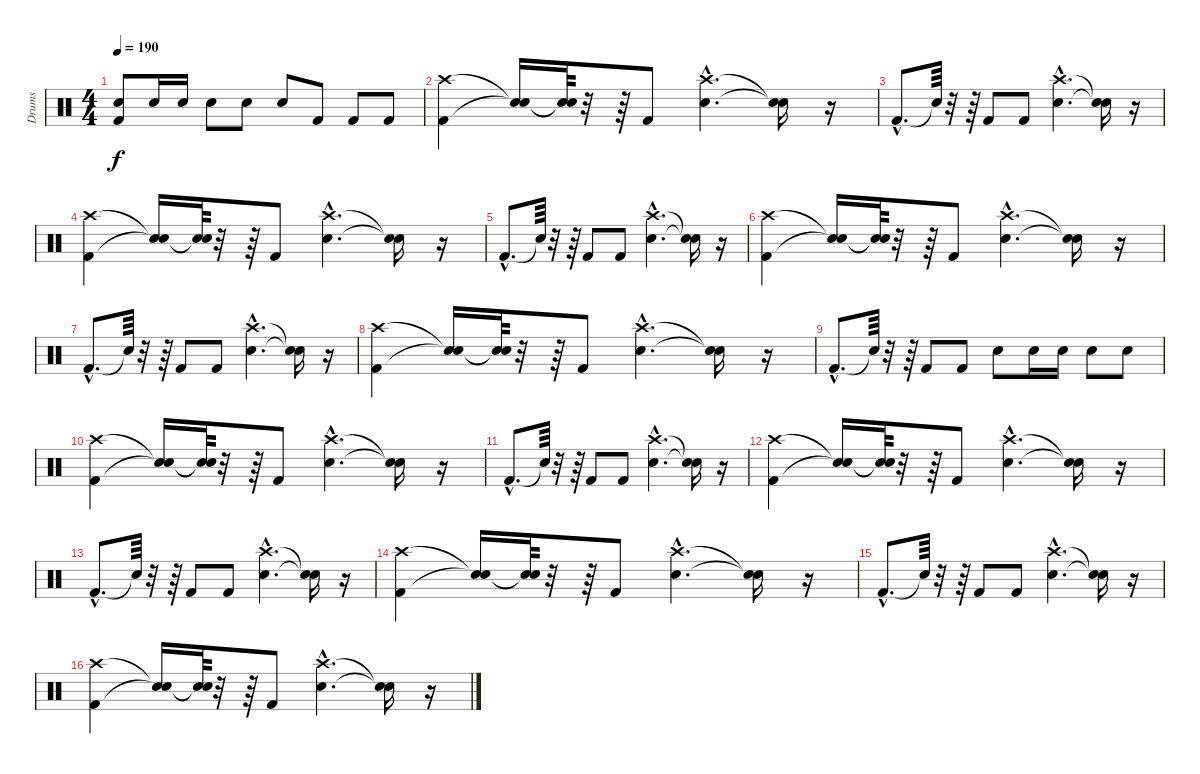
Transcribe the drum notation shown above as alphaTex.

\track ("Drums" "Drums") {instrument percussion}
\staff {score}
\articulation defaults
\ts (4 4)
\tempo 190
\clef neutral
\ks c
("Kick (hit) 2" "Snare (hit) 2").8{dy f} "Snare (hit) 2".16 "Snare (hit) 2".16 "Snare (hit) 2".8 "Snare (hit) 2".8 "Snare (hit) 2".8 "Kick (hit) 2".8 "Kick (hit) 2".8 "Kick (hit) 2".8 |
("Kick (hit) 2" "Crash high (hit)").4 ("Snare (hit)"{t} "Snare (hit)"{t}).16 ("Snare (hit)"{t} "Snare (hit)"{t}).64 r.32 r.64 "Kick (hit) 2".8 ("Snare (hit) 2"{hac} "Crash high (hit)"{hac}).4{d} ("Snare (hit)"{t} "Snare (hit)"{t}).16 r.16 |
"Kick (hit) 2"{hac}.8{d} "Snare (hit)"{t}.64 r.32 r.64 "Kick (hit) 2".8 "Kick (hit) 2".8 ("Snare (hit) 2"{hac} "Crash high (hit)"{hac}).4{d} ("Snare (hit)"{t} "Snare (hit)"{t}).16 r.16 |
("Kick (hit) 2" "Crash high (hit)").4 ("Snare (hit)"{t} "Snare (hit)"{t}).16 ("Snare (hit)"{t} "Snare (hit)"{t}).64 r.32 r.64 "Kick (hit) 2".8 ("Snare (hit) 2"{hac} "Crash high (hit)"{hac}).4{d} ("Snare (hit)"{t} "Snare (hit)"{t}).16 r.16 |
"Kick (hit) 2"{hac}.8{d} "Snare (hit)"{t}.64 r.32 r.64 "Kick (hit) 2".8 "Kick (hit) 2".8 ("Snare (hit) 2"{hac} "Crash high (hit)"{hac}).4{d} ("Snare (hit)"{t} "Snare (hit)"{t}).16 r.16 |
("Kick (hit) 2" "Crash high (hit)").4 ("Snare (hit)"{t} "Snare (hit)"{t}).16 ("Snare (hit)"{t} "Snare (hit)"{t}).64 r.32 r.64 "Kick (hit) 2".8 ("Snare (hit) 2"{hac} "Crash high (hit)"{hac}).4{d} ("Snare (hit)"{t} "Snare (hit)"{t}).16 r.16 |
"Kick (hit) 2"{hac}.8{d} "Snare (hit)"{t}.64 r.32 r.64 "Kick (hit) 2".8 "Kick (hit) 2".8 ("Snare (hit) 2"{hac} "Crash high (hit)"{hac}).4{d} ("Snare (hit)"{t} "Snare (hit)"{t}).16 r.16 |
("Kick (hit) 2" "Crash high (hit)").4 ("Snare (hit)"{t} "Snare (hit)"{t}).16 ("Snare (hit)"{t} "Snare (hit)"{t}).64 r.32 r.64 "Kick (hit) 2".8 ("Snare (hit) 2"{hac} "Crash high (hit)"{hac}).4{d} ("Snare (hit)"{t} "Snare (hit)"{t}).16 r.16 |
"Kick (hit) 2"{hac}.8{d} "Snare (hit)"{t}.64 r.32 r.64 "Kick (hit) 2".8 "Kick (hit) 2".8 "Snare (hit) 2".8 "Snare (hit) 2".16 "Snare (hit) 2".16 "Snare (hit) 2".8 "Snare (hit) 2".8 |
("Kick (hit) 2" "Crash high (hit)").4 ("Snare (hit)"{t} "Snare (hit)"{t}).16 ("Snare (hit)"{t} "Snare (hit)"{t}).64 r.32 r.64 "Kick (hit) 2".8 ("Snare (hit) 2"{hac} "Crash high (hit)"{hac}).4{d} ("Snare (hit)"{t} "Snare (hit)"{t}).16 r.16 |
"Kick (hit) 2"{hac}.8{d} "Snare (hit)"{t}.64 r.32 r.64 "Kick (hit) 2".8 "Kick (hit) 2".8 ("Snare (hit) 2"{hac} "Crash high (hit)"{hac}).4{d} ("Snare (hit)"{t} "Snare (hit)"{t}).16 r.16 |
("Kick (hit) 2" "Crash high (hit)").4 ("Snare (hit)"{t} "Snare (hit)"{t}).16 ("Snare (hit)"{t} "Snare (hit)"{t}).64 r.32 r.64 "Kick (hit) 2".8 ("Snare (hit) 2"{hac} "Crash high (hit)"{hac}).4{d} ("Snare (hit)"{t} "Snare (hit)"{t}).16 r.16 |
"Kick (hit) 2"{hac}.8{d} "Snare (hit)"{t}.64 r.32 r.64 "Kick (hit) 2".8 "Kick (hit) 2".8 ("Snare (hit) 2"{hac} "Crash high (hit)"{hac}).4{d} ("Snare (hit)"{t} "Snare (hit)"{t}).16 r.16 |
("Kick (hit) 2" "Crash high (hit)").4 ("Snare (hit)"{t} "Snare (hit)"{t}).16 ("Snare (hit)"{t} "Snare (hit)"{t}).64 r.32 r.64 "Kick (hit) 2".8 ("Snare (hit) 2"{hac} "Crash high (hit)"{hac}).4{d} ("Snare (hit)"{t} "Snare (hit)"{t}).16 r.16 |
"Kick (hit) 2"{hac}.8{d} "Snare (hit)"{t}.64 r.32 r.64 "Kick (hit) 2".8 "Kick (hit) 2".8 ("Snare (hit) 2"{hac} "Crash high (hit)"{hac}).4{d} ("Snare (hit)"{t} "Snare (hit)"{t}).16 r.16 |
("Kick (hit) 2" "Crash high (hit)").4 ("Snare (hit)"{t} "Snare (hit)"{t}).16 ("Snare (hit)"{t} "Snare (hit)"{t}).64 r.32 r.64 "Kick (hit) 2".8 ("Snare (hit) 2"{hac} "Crash high (hit)"{hac}).4{d} ("Snare (hit)"{t} "Snare (hit)"{t}).16 r.16
